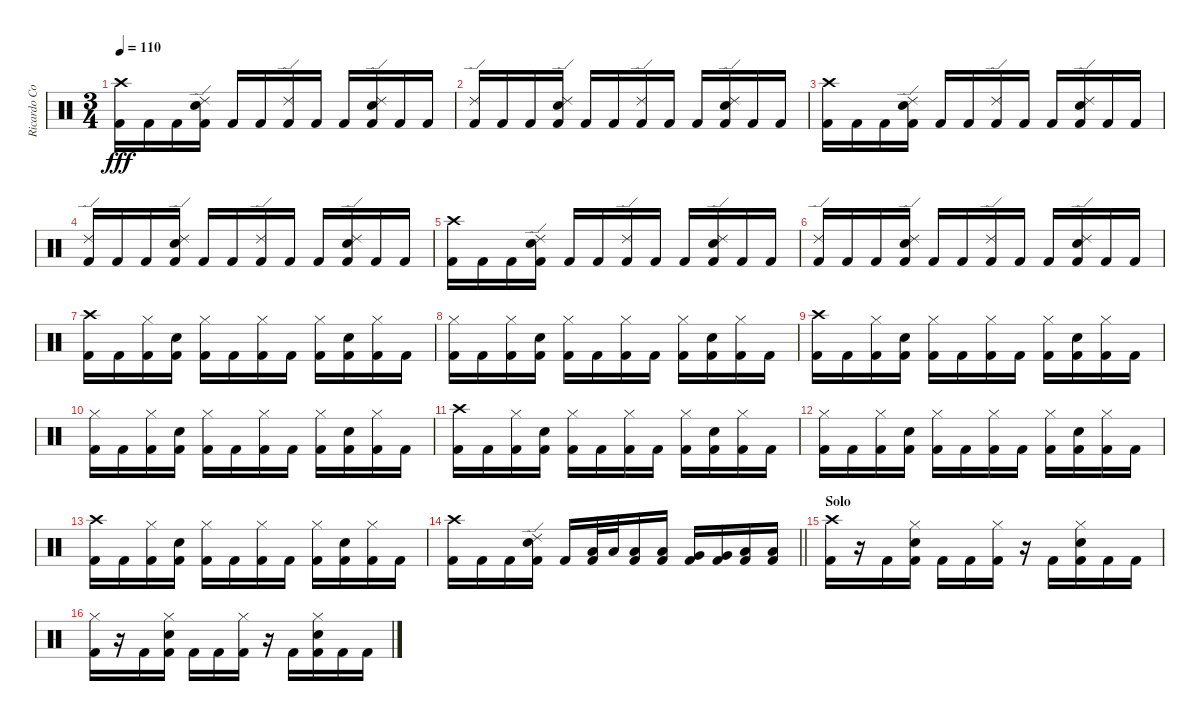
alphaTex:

\track ("Ricardo Confessori" "Ricardo Co") {instrument percussion}
\staff {score}
\articulation defaults
\ts (3 4)
\tempo 110
\clef neutral
\ks c
("Crash high (hit)" "Kick (hit) 2").16{dy fff} "Kick (hit) 2".16 "Kick (hit) 2".16 ("Ride (edge) 2" "Electric Snare (hit)" "Kick (hit) 2").16 "Kick (hit) 2".16 "Kick (hit) 2".16 ("Ride (edge) 2" "Kick (hit) 2").16 "Kick (hit) 2".16 "Kick (hit) 2".16 ("Ride (edge) 2" "Electric Snare (hit)" "Kick (hit) 2").16 "Kick (hit) 2".16 "Kick (hit) 2".16 |
("Ride (edge) 2" "Kick (hit) 2").16 "Kick (hit) 2".16 "Kick (hit) 2".16 ("Ride (edge) 2" "Electric Snare (hit)" "Kick (hit) 2").16 "Kick (hit) 2".16 "Kick (hit) 2".16 ("Ride (edge) 2" "Kick (hit) 2").16 "Kick (hit) 2".16 "Kick (hit) 2".16 ("Ride (edge) 2" "Electric Snare (hit)" "Kick (hit) 2").16 "Kick (hit) 2".16 "Kick (hit) 2".16 |
("Crash high (hit)" "Kick (hit) 2").16 "Kick (hit) 2".16 "Kick (hit) 2".16 ("Ride (edge) 2" "Electric Snare (hit)" "Kick (hit) 2").16 "Kick (hit) 2".16 "Kick (hit) 2".16 ("Ride (edge) 2" "Kick (hit) 2").16 "Kick (hit) 2".16 "Kick (hit) 2".16 ("Ride (edge) 2" "Electric Snare (hit)" "Kick (hit) 2").16 "Kick (hit) 2".16 "Kick (hit) 2".16 |
("Ride (edge) 2" "Kick (hit) 2").16 "Kick (hit) 2".16 "Kick (hit) 2".16 ("Ride (edge) 2" "Electric Snare (hit)" "Kick (hit) 2").16 "Kick (hit) 2".16 "Kick (hit) 2".16 ("Ride (edge) 2" "Kick (hit) 2").16 "Kick (hit) 2".16 "Kick (hit) 2".16 ("Ride (edge) 2" "Electric Snare (hit)" "Kick (hit) 2").16 "Kick (hit) 2".16 "Kick (hit) 2".16 |
("Crash high (hit)" "Kick (hit) 2").16 "Kick (hit) 2".16 "Kick (hit) 2".16 ("Ride (edge) 2" "Electric Snare (hit)" "Kick (hit) 2").16 "Kick (hit) 2".16 "Kick (hit) 2".16 ("Ride (edge) 2" "Kick (hit) 2").16 "Kick (hit) 2".16 "Kick (hit) 2".16 ("Ride (edge) 2" "Electric Snare (hit)" "Kick (hit) 2").16 "Kick (hit) 2".16 "Kick (hit) 2".16 |
("Ride (edge) 2" "Kick (hit) 2").16 "Kick (hit) 2".16 "Kick (hit) 2".16 ("Ride (edge) 2" "Electric Snare (hit)" "Kick (hit) 2").16 "Kick (hit) 2".16 "Kick (hit) 2".16 ("Ride (edge) 2" "Kick (hit) 2").16 "Kick (hit) 2".16 "Kick (hit) 2".16 ("Ride (edge) 2" "Electric Snare (hit)" "Kick (hit) 2").16 "Kick (hit) 2".16 "Kick (hit) 2".16 |
("Crash high (hit)" "Kick (hit) 2").16 "Kick (hit) 2".16 ("Hi-Hat (closed)" "Kick (hit) 2").16 ("Electric Snare (hit)" "Kick (hit) 2").16 ("Hi-Hat (closed)" "Kick (hit) 2").16 "Kick (hit) 2".16 ("Hi-Hat (closed)" "Kick (hit) 2").16 "Kick (hit) 2".16 ("Hi-Hat (closed)" "Kick (hit) 2").16 ("Electric Snare (hit)" "Kick (hit) 2").16 ("Hi-Hat (closed)" "Kick (hit) 2").16 "Kick (hit) 2".16 |
("Hi-Hat (closed)" "Kick (hit) 2").16 "Kick (hit) 2".16 ("Hi-Hat (closed)" "Kick (hit) 2").16 ("Electric Snare (hit)" "Kick (hit) 2").16 ("Hi-Hat (closed)" "Kick (hit) 2").16 "Kick (hit) 2".16 ("Hi-Hat (closed)" "Kick (hit) 2").16 "Kick (hit) 2".16 ("Hi-Hat (closed)" "Kick (hit) 2").16 ("Electric Snare (hit)" "Kick (hit) 2").16 ("Hi-Hat (closed)" "Kick (hit) 2").16 "Kick (hit) 2".16 |
("Crash high (hit)" "Kick (hit) 2").16 "Kick (hit) 2".16 ("Hi-Hat (closed)" "Kick (hit) 2").16 ("Electric Snare (hit)" "Kick (hit) 2").16 ("Hi-Hat (closed)" "Kick (hit) 2").16 "Kick (hit) 2".16 ("Hi-Hat (closed)" "Kick (hit) 2").16 "Kick (hit) 2".16 ("Hi-Hat (closed)" "Kick (hit) 2").16 ("Electric Snare (hit)" "Kick (hit) 2").16 ("Hi-Hat (closed)" "Kick (hit) 2").16 "Kick (hit) 2".16 |
("Hi-Hat (closed)" "Kick (hit) 2").16 "Kick (hit) 2".16 ("Hi-Hat (closed)" "Kick (hit) 2").16 ("Electric Snare (hit)" "Kick (hit) 2").16 ("Hi-Hat (closed)" "Kick (hit) 2").16 "Kick (hit) 2".16 ("Hi-Hat (closed)" "Kick (hit) 2").16 "Kick (hit) 2".16 ("Hi-Hat (closed)" "Kick (hit) 2").16 ("Electric Snare (hit)" "Kick (hit) 2").16 ("Hi-Hat (closed)" "Kick (hit) 2").16 "Kick (hit) 2".16 |
("Crash high (hit)" "Kick (hit) 2").16 "Kick (hit) 2".16 ("Hi-Hat (closed)" "Kick (hit) 2").16 ("Electric Snare (hit)" "Kick (hit) 2").16 ("Hi-Hat (closed)" "Kick (hit) 2").16 "Kick (hit) 2".16 ("Hi-Hat (closed)" "Kick (hit) 2").16 "Kick (hit) 2".16 ("Hi-Hat (closed)" "Kick (hit) 2").16 ("Electric Snare (hit)" "Kick (hit) 2").16 ("Hi-Hat (closed)" "Kick (hit) 2").16 "Kick (hit) 2".16 |
("Hi-Hat (closed)" "Kick (hit) 2").16 "Kick (hit) 2".16 ("Hi-Hat (closed)" "Kick (hit) 2").16 ("Electric Snare (hit)" "Kick (hit) 2").16 ("Hi-Hat (closed)" "Kick (hit) 2").16 "Kick (hit) 2".16 ("Hi-Hat (closed)" "Kick (hit) 2").16 "Kick (hit) 2".16 ("Hi-Hat (closed)" "Kick (hit) 2").16 ("Electric Snare (hit)" "Kick (hit) 2").16 ("Hi-Hat (closed)" "Kick (hit) 2").16 "Kick (hit) 2".16 |
("Crash high (hit)" "Kick (hit) 2").16 "Kick (hit) 2".16 ("Hi-Hat (closed)" "Kick (hit) 2").16 ("Electric Snare (hit)" "Kick (hit) 2").16 ("Hi-Hat (closed)" "Kick (hit) 2").16 "Kick (hit) 2".16 ("Hi-Hat (closed)" "Kick (hit) 2").16 "Kick (hit) 2".16 ("Hi-Hat (closed)" "Kick (hit) 2").16 ("Electric Snare (hit)" "Kick (hit) 2").16 ("Hi-Hat (closed)" "Kick (hit) 2").16 "Kick (hit) 2".16 |
\barLineRight lightlight
("Crash high (hit)" "Kick (hit) 2").16 "Kick (hit) 2".16 "Kick (hit) 2".16 ("Ride (edge) 2" "Electric Snare (hit)" "Kick (hit) 2").16 "Kick (hit) 2".16 ("Low Tom (hit)" "Kick (hit) 2").32 "Low Tom (hit)".32 ("Low Tom (hit)" "Kick (hit) 2").16 ("Low Tom (hit)" "Kick (hit) 2").16 ("Very Low Tom (hit)" "Kick (hit) 2").16 ("Very Low Tom (hit)" "Kick (hit) 2").16 ("Low Floor Tom (hit)" "Kick (hit) 2").16 ("Low Floor Tom (hit)" "Kick (hit) 2").16 |
\section ("" "Solo")
("Crash high (hit)" "Kick (hit) 2").16 r.16 "Kick (hit) 2".16 ("Hi-Hat (closed)" "Electric Snare (hit)" "Kick (hit) 2").16 "Kick (hit) 2".16 "Kick (hit) 2".16 ("Hi-Hat (closed)" "Kick (hit) 2").16 r.16 "Kick (hit) 2".16 ("Hi-Hat (closed)" "Electric Snare (hit)" "Kick (hit) 2").16 "Kick (hit) 2".16 "Kick (hit) 2".16 |
("Hi-Hat (closed)" "Kick (hit) 2").16 r.16 "Kick (hit) 2".16 ("Hi-Hat (closed)" "Electric Snare (hit)" "Kick (hit) 2").16 "Kick (hit) 2".16 "Kick (hit) 2".16 ("Hi-Hat (closed)" "Kick (hit) 2").16 r.16 "Kick (hit) 2".16 ("Hi-Hat (closed)" "Electric Snare (hit)" "Kick (hit) 2").16 "Kick (hit) 2".16 "Kick (hit) 2".16
